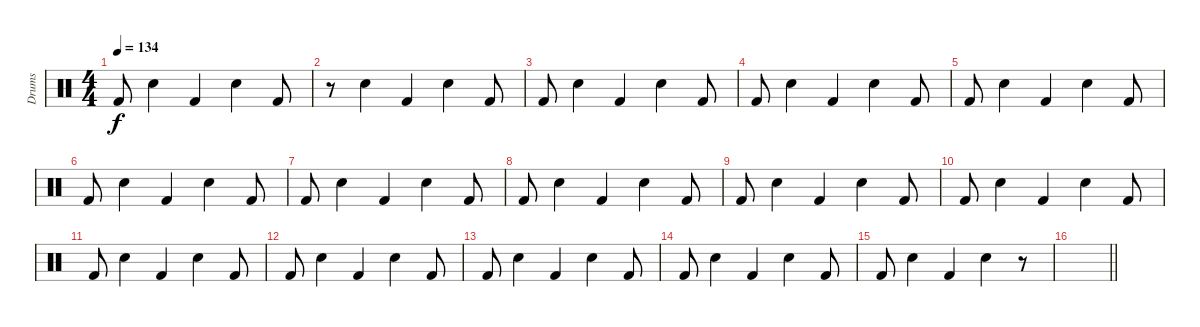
\track ("Drums" "Drums") {instrument percussion}
\staff {score}
\articulation defaults
\ts (4 4)
\tempo 134
\clef neutral
\ks c "Kick (hit) 2".8{dy f} "Electric Snare (hit)".4 "Kick (hit) 2".4 "Electric Snare (hit)".4 "Kick (hit) 2".8
|
r.8 "Electric Snare (hit)".4 "Kick (hit) 2".4 "Electric Snare (hit)".4 "Kick (hit) 2".8 |
"Kick (hit) 2".8 "Electric Snare (hit)".4 "Kick (hit) 2".4 "Electric Snare (hit)".4 "Kick (hit) 2".8 |
"Kick (hit) 2".8 "Electric Snare (hit)".4 "Kick (hit) 2".4 "Electric Snare (hit)".4 "Kick (hit) 2".8 |
"Kick (hit) 2".8 "Electric Snare (hit)".4 "Kick (hit) 2".4 "Electric Snare (hit)".4 "Kick (hit) 2".8 |
"Kick (hit) 2".8 "Electric Snare (hit)".4 "Kick (hit) 2".4 "Electric Snare (hit)".4 "Kick (hit) 2".8 |
"Kick (hit) 2".8 "Electric Snare (hit)".4 "Kick (hit) 2".4 "Electric Snare (hit)".4 "Kick (hit) 2".8 |
"Kick (hit) 2".8 "Electric Snare (hit)".4 "Kick (hit) 2".4 "Electric Snare (hit)".4 "Kick (hit) 2".8 |
"Kick (hit) 2".8 "Electric Snare (hit)".4 "Kick (hit) 2".4 "Electric Snare (hit)".4 "Kick (hit) 2".8 |
"Kick (hit) 2".8 "Electric Snare (hit)".4 "Kick (hit) 2".4 "Electric Snare (hit)".4 "Kick (hit) 2".8 |
"Kick (hit) 2".8 "Electric Snare (hit)".4 "Kick (hit) 2".4 "Electric Snare (hit)".4 "Kick (hit) 2".8 |
"Kick (hit) 2".8 "Electric Snare (hit)".4 "Kick (hit) 2".4 "Electric Snare (hit)".4 "Kick (hit) 2".8 |
"Kick (hit) 2".8 "Electric Snare (hit)".4 "Kick (hit) 2".4 "Electric Snare (hit)".4 "Kick (hit) 2".8 |
"Kick (hit) 2".8 "Electric Snare (hit)".4 "Kick (hit) 2".4 "Electric Snare (hit)".4 "Kick (hit) 2".8 |
"Kick (hit) 2".8 "Electric Snare (hit)".4 "Kick (hit) 2".4 "Electric Snare (hit)".4 r.8 |
\barLineRight lightlight
